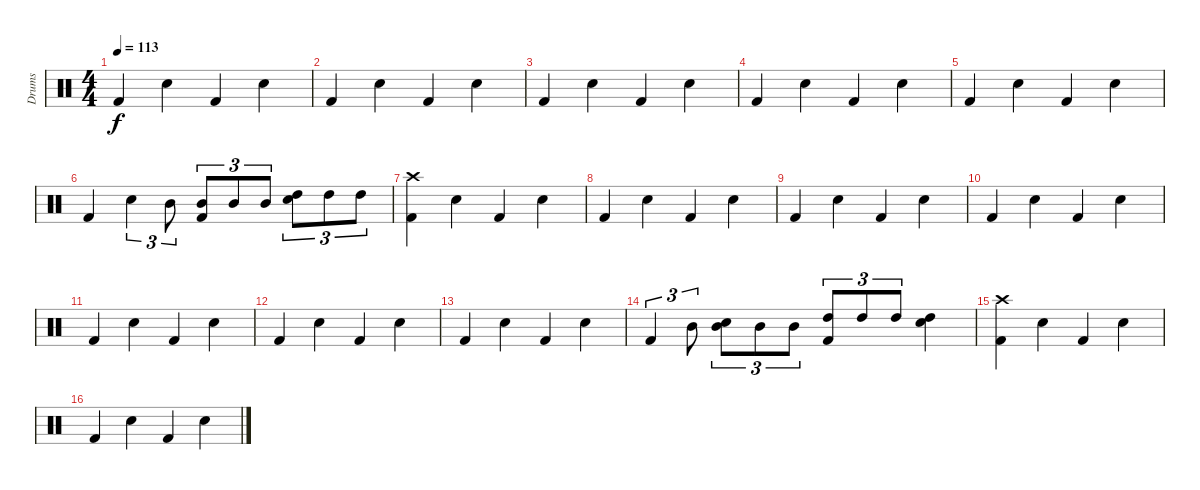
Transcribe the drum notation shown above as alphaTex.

\track ("Drums" "Drums") {instrument percussion}
\staff {score}
\articulation defaults
\ts (4 4)
\tempo 113
\clef neutral
\ks c "Kick (hit) 2".4{dy f} "Electric Snare (hit)".4 "Kick (hit) 2".4 "Electric Snare (hit)".4
|
"Kick (hit) 2".4 "Electric Snare (hit)".4 "Kick (hit) 2".4 "Electric Snare (hit)".4 |
"Kick (hit) 2".4 "Electric Snare (hit)".4 "Kick (hit) 2".4 "Electric Snare (hit)".4 |
"Kick (hit) 2".4 "Electric Snare (hit)".4 "Kick (hit) 2".4 "Electric Snare (hit)".4 |
"Kick (hit) 2".4 "Electric Snare (hit)".4 "Kick (hit) 2".4 "Electric Snare (hit)".4 |
"Kick (hit) 2".4 "Electric Snare (hit)".4{tu (3 2)} "Mid Tom (hit)".8{tu (3 2)} ("Mid Tom (hit)" "Kick (hit) 2").8{tu (3 2)} "Mid Tom (hit)".8{tu (3 2)} "Mid Tom (hit)".8{tu (3 2)} ("High Tom (hit)" "Electric Snare (hit)").8{tu (3 2)} "High Tom (hit)".8{tu (3 2)} "High Tom (hit)".8{tu (3 2)} |
("Crash high (hit)" "Kick (hit) 2").4 "Electric Snare (hit)".4 "Kick (hit) 2".4 "Electric Snare (hit)".4 |
"Kick (hit) 2".4 "Electric Snare (hit)".4 "Kick (hit) 2".4 "Electric Snare (hit)".4 |
"Kick (hit) 2".4 "Electric Snare (hit)".4 "Kick (hit) 2".4 "Electric Snare (hit)".4 |
"Kick (hit) 2".4 "Electric Snare (hit)".4 "Kick (hit) 2".4 "Electric Snare (hit)".4 |
"Kick (hit) 2".4 "Electric Snare (hit)".4 "Kick (hit) 2".4 "Electric Snare (hit)".4 |
"Kick (hit) 2".4 "Electric Snare (hit)".4 "Kick (hit) 2".4 "Electric Snare (hit)".4 |
"Kick (hit) 2".4 "Electric Snare (hit)".4 "Kick (hit) 2".4 "Electric Snare (hit)".4 |
"Kick (hit) 2".4{tu (3 2)} "Mid Tom (hit)".8{tu (3 2)} ("Mid Tom (hit)" "Electric Snare (hit)").8{tu (3 2)} "Mid Tom (hit)".8{tu (3 2)} "Mid Tom (hit)".8{tu (3 2)} ("High Tom (hit)" "Kick (hit) 2").8{tu (3 2)} "High Tom (hit)".8{tu (3 2)} "High Tom (hit)".8{tu (3 2)} ("High Tom (hit)" "Electric Snare (hit)").4 |
("Crash high (hit)" "Kick (hit) 2").4 "Electric Snare (hit)".4 "Kick (hit) 2".4 "Electric Snare (hit)".4 |
"Kick (hit) 2".4 "Electric Snare (hit)".4 "Kick (hit) 2".4 "Electric Snare (hit)".4
